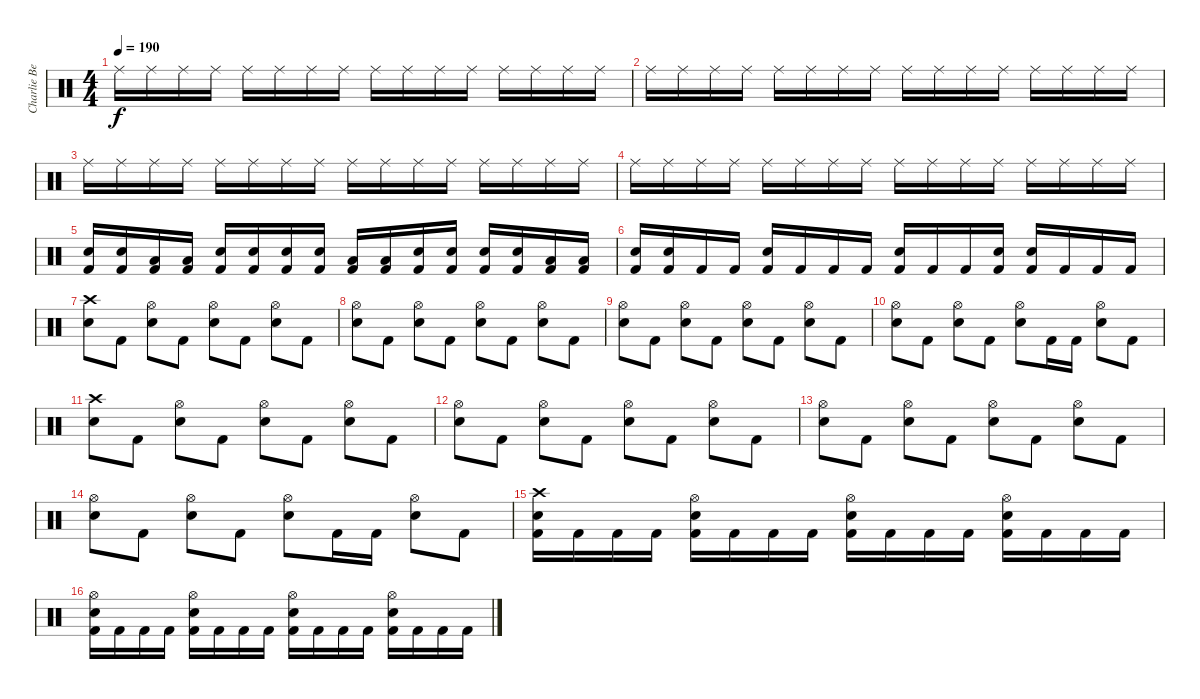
\track ("Charlie Benante" "Charlie Be") {instrument percussion}
\staff {score}
\articulation defaults
\ts (4 4)
\tempo 190
\clef neutral
\ks c "Ride (middle)".16{dy f} "Ride (middle)".16 "Ride (middle)".16 "Ride (middle)".16 "Ride (middle)".16 "Ride (middle)".16 "Ride (middle)".16 "Ride (middle)".16 "Ride (middle)".16 "Ride (middle)".16 "Ride (middle)".16 "Ride (middle)".16 "Ride (middle)".16 "Ride (middle)".16 "Ride (middle)".16 "Ride (middle)".16
|
"Ride (middle)".16 "Ride (middle)".16 "Ride (middle)".16 "Ride (middle)".16 "Ride (middle)".16 "Ride (middle)".16 "Ride (middle)".16 "Ride (middle)".16 "Ride (middle)".16 "Ride (middle)".16 "Ride (middle)".16 "Ride (middle)".16 "Ride (middle)".16 "Ride (middle)".16 "Ride (middle)".16 "Ride (middle)".16 |
"Ride (middle)".16 "Ride (middle)".16 "Ride (middle)".16 "Ride (middle)".16 "Ride (middle)".16 "Ride (middle)".16 "Ride (middle)".16 "Ride (middle)".16 "Ride (middle)".16 "Ride (middle)".16 "Ride (middle)".16 "Ride (middle)".16 "Ride (middle)".16 "Ride (middle)".16 "Ride (middle)".16 "Ride (middle)".16 |
"Ride (middle)".16 "Ride (middle)".16 "Ride (middle)".16 "Ride (middle)".16 "Ride (middle)".16 "Ride (middle)".16 "Ride (middle)".16 "Ride (middle)".16 "Ride (middle)".16 "Ride (middle)".16 "Ride (middle)".16 "Ride (middle)".16 "Ride (middle)".16 "Ride (middle)".16 "Ride (middle)".16 "Ride (middle)".16 |
("Snare (hit) 2" "Kick (hit) 2").16 ("Snare (hit) 2" "Kick (hit) 2").16 ("Low Tom (hit)" "Kick (hit) 2").16 ("Low Tom (hit)" "Kick (hit) 2").16 ("Snare (hit) 2" "Kick (hit) 2").16 ("Snare (hit) 2" "Kick (hit) 2").16 ("Snare (hit) 2" "Kick (hit) 2").16 ("Snare (hit) 2" "Kick (hit) 2").16 ("Low Tom (hit)" "Kick (hit) 2").16 ("Low Tom (hit)" "Kick (hit) 2").16 ("Snare (hit) 2" "Kick (hit) 2").16 ("Snare (hit) 2" "Kick (hit) 2").16 ("Snare (hit) 2" "Kick (hit) 2").16 ("Snare (hit) 2" "Kick (hit) 2").16 ("Low Tom (hit)" "Kick (hit) 2").16 ("Low Tom (hit)" "Kick (hit) 2").16 |
("Snare (hit) 2" "Kick (hit) 2").16 ("Snare (hit) 2" "Kick (hit) 2").16 "Kick (hit) 2".16 "Kick (hit) 2".16 ("Snare (hit) 2" "Kick (hit) 2").16 "Kick (hit) 2".16 "Kick (hit) 2".16 "Kick (hit) 2".16 ("Snare (hit) 2" "Kick (hit) 2").16 "Kick (hit) 2".16 "Kick (hit) 2".16 ("Snare (hit) 2" "Kick (hit) 2").16 ("Snare (hit) 2" "Kick (hit) 2").16 "Kick (hit) 2".16 "Kick (hit) 2".16 "Kick (hit) 2".16 |
("Snare (hit) 2" "Crash high (hit)").8 "Kick (hit) 2".8 ("Snare (hit) 2" "Hi-Hat (open)").8 "Kick (hit) 2".8 ("Snare (hit) 2" "Hi-Hat (open)").8 "Kick (hit) 2".8 ("Snare (hit) 2" "Hi-Hat (open)").8 "Kick (hit) 2".8 |
("Snare (hit) 2" "Hi-Hat (open)").8 "Kick (hit) 2".8 ("Snare (hit) 2" "Hi-Hat (open)").8 "Kick (hit) 2".8 ("Snare (hit) 2" "Hi-Hat (open)").8 "Kick (hit) 2".8 ("Snare (hit) 2" "Hi-Hat (open)").8 "Kick (hit) 2".8 |
("Snare (hit) 2" "Hi-Hat (open)").8 "Kick (hit) 2".8 ("Snare (hit) 2" "Hi-Hat (open)").8 "Kick (hit) 2".8 ("Snare (hit) 2" "Hi-Hat (open)").8 "Kick (hit) 2".8 ("Snare (hit) 2" "Hi-Hat (open)").8 "Kick (hit) 2".8 |
("Snare (hit) 2" "Hi-Hat (open)").8 "Kick (hit) 2".8 ("Snare (hit) 2" "Hi-Hat (open)").8 "Kick (hit) 2".8 ("Snare (hit) 2" "Hi-Hat (open)").8 "Kick (hit) 2".16 "Kick (hit) 2".16 ("Snare (hit) 2" "Hi-Hat (open)").8 "Kick (hit) 2".8 |
("Snare (hit) 2" "Crash high (hit)").8 "Kick (hit) 2".8 ("Snare (hit) 2" "Hi-Hat (open)").8 "Kick (hit) 2".8 ("Snare (hit) 2" "Hi-Hat (open)").8 "Kick (hit) 2".8 ("Snare (hit) 2" "Hi-Hat (open)").8 "Kick (hit) 2".8 |
("Snare (hit) 2" "Hi-Hat (open)").8 "Kick (hit) 2".8 ("Snare (hit) 2" "Hi-Hat (open)").8 "Kick (hit) 2".8 ("Snare (hit) 2" "Hi-Hat (open)").8 "Kick (hit) 2".8 ("Snare (hit) 2" "Hi-Hat (open)").8 "Kick (hit) 2".8 |
("Snare (hit) 2" "Hi-Hat (open)").8 "Kick (hit) 2".8 ("Snare (hit) 2" "Hi-Hat (open)").8 "Kick (hit) 2".8 ("Snare (hit) 2" "Hi-Hat (open)").8 "Kick (hit) 2".8 ("Snare (hit) 2" "Hi-Hat (open)").8 "Kick (hit) 2".8 |
("Snare (hit) 2" "Hi-Hat (open)").8 "Kick (hit) 2".8 ("Snare (hit) 2" "Hi-Hat (open)").8 "Kick (hit) 2".8 ("Snare (hit) 2" "Hi-Hat (open)").8 "Kick (hit) 2".16 "Kick (hit) 2".16 ("Snare (hit) 2" "Hi-Hat (open)").8 "Kick (hit) 2".8 |
("Snare (hit) 2" "Crash high (hit)" "Kick (hit) 2").16 "Kick (hit) 2".16 "Kick (hit) 2".16 "Kick (hit) 2".16 ("Snare (hit) 2" "Hi-Hat (open)" "Kick (hit) 2").16 "Kick (hit) 2".16 "Kick (hit) 2".16 "Kick (hit) 2".16 ("Snare (hit) 2" "Hi-Hat (open)" "Kick (hit) 2").16 "Kick (hit) 2".16 "Kick (hit) 2".16 "Kick (hit) 2".16 ("Snare (hit) 2" "Hi-Hat (open)" "Kick (hit) 2").16 "Kick (hit) 2".16 "Kick (hit) 2".16 "Kick (hit) 2".16 |
("Snare (hit) 2" "Hi-Hat (open)" "Kick (hit) 2").16 "Kick (hit) 2".16 "Kick (hit) 2".16 "Kick (hit) 2".16 ("Snare (hit) 2" "Hi-Hat (open)" "Kick (hit) 2").16 "Kick (hit) 2".16 "Kick (hit) 2".16 "Kick (hit) 2".16 ("Snare (hit) 2" "Hi-Hat (open)" "Kick (hit) 2").16 "Kick (hit) 2".16 "Kick (hit) 2".16 "Kick (hit) 2".16 ("Snare (hit) 2" "Hi-Hat (open)" "Kick (hit) 2").16 "Kick (hit) 2".16 "Kick (hit) 2".16 "Kick (hit) 2".16
